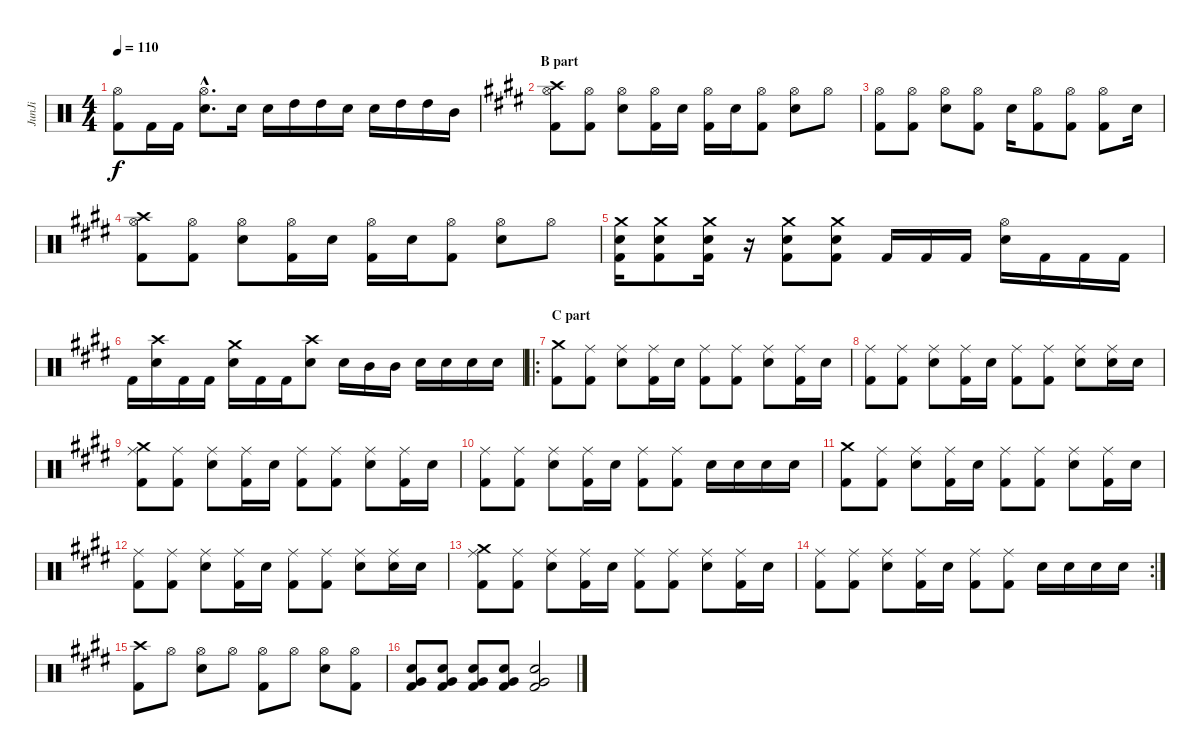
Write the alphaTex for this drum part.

\track ("JunJi" "JunJi") {instrument percussion}
\staff {score}
\articulation defaults
\ts (4 4)
\tempo 110
\clef neutral
\ks c
("Hi-Hat (open)" "Kick (hit) 2").8{dy f} "Kick (hit) 2".16 "Kick (hit) 2".16 ("Hi-Hat (open)"{hac} "Snare (hit) 2"{hac}).8{d} "Snare (hit) 2".16 "Snare (hit) 2".16 "High Tom (hit)".16 "High Tom (hit)".16 "Snare (hit) 2".16 "Snare (hit) 2".16 "High Tom (hit)".16 "High Tom (hit)".16 "Mid Tom (hit)".16 |
\section ("" "B part")
\ks c#minor
("Hi-Hat (open)" "Kick (hit) 2" "Crash high (hit)").8 ("Hi-Hat (open)" "Kick (hit) 2").8 ("Hi-Hat (open)" "Snare (hit) 2").8 ("Hi-Hat (open)" "Kick (hit) 2").16 "Snare (hit) 2".16 ("Hi-Hat (open)" "Kick (hit) 2").16 "Snare (hit) 2".16 ("Hi-Hat (open)" "Kick (hit) 2").8 ("Hi-Hat (open)" "Snare (hit) 2").8 "Hi-Hat (open)".8 |
("Hi-Hat (open)" "Kick (hit) 2").8 ("Hi-Hat (open)" "Kick (hit) 2").8 ("Hi-Hat (open)" "Snare (hit) 2").8 ("Hi-Hat (open)" "Kick (hit) 2").8 "Snare (hit) 2".16 ("Hi-Hat (open)" "Kick (hit) 2").8 ("Hi-Hat (open)" "Kick (hit) 2").8 ("Hi-Hat (open)" "Kick (hit) 2").8 "Snare (hit) 2".16 |
("Hi-Hat (open)" "Kick (hit) 2" "Crash high (hit)").8 ("Hi-Hat (open)" "Kick (hit) 2").8 ("Hi-Hat (open)" "Snare (hit) 2").8 ("Hi-Hat (open)" "Kick (hit) 2").16 "Snare (hit) 2".16 ("Hi-Hat (open)" "Kick (hit) 2").16 "Snare (hit) 2".16 ("Hi-Hat (open)" "Kick (hit) 2").8 ("Hi-Hat (open)" "Snare (hit) 2").8 "Hi-Hat (open)".8 |
("Crash medium (hit)" "Kick (hit) 2" "Snare (hit) 2").16 ("Crash medium (hit)" "Kick (hit) 2" "Snare (hit) 2").8 ("Crash medium (hit)" "Kick (hit) 2" "Snare (hit) 2").16 r.16 ("Crash medium (hit)" "Kick (hit) 2" "Snare (hit) 2").8 ("Crash medium (hit)" "Kick (hit) 2" "Snare (hit) 2").8 "Kick (hit) 2".16 "Kick (hit) 2".16 "Kick (hit) 2".16 ("Hi-Hat (open)" "Snare (hit) 2").16 "Kick (hit) 2".16 "Kick (hit) 2".16 "Kick (hit) 2".16 |
"Kick (hit) 2".16 ("Crash high (hit)" "Snare (hit) 2").16 "Kick (hit) 2".16 "Kick (hit) 2".16 ("Crash medium (hit)" "Snare (hit) 2").16 "Kick (hit) 2".16 "Kick (hit) 2".16 ("Crash high (hit)" "Snare (hit) 2").8 "Snare (hit) 2".16 "Mid Tom (hit)".16 "Mid Tom (hit)".16 "Snare (hit) 2".16 "Snare (hit) 2".16 "Snare (hit) 2".16 "Snare (hit) 2".16 |
\ro
\section ("" "C part")
("Crash medium (hit)" "Kick (hit) 2").8 ("Ride (middle)" "Kick (hit) 2").8 ("Ride (middle)" "Snare (hit) 2").8 ("Ride (middle)" "Kick (hit) 2").16 "Snare (hit) 2".16 ("Ride (middle)" "Kick (hit) 2").8 ("Ride (middle)" "Kick (hit) 2").8 ("Ride (middle)" "Snare (hit) 2").8 ("Ride (middle)" "Kick (hit) 2").16 "Snare (hit) 2".16 |
("Ride (middle)" "Kick (hit) 2").8 ("Ride (middle)" "Kick (hit) 2").8 ("Ride (middle)" "Snare (hit) 2").8 ("Ride (middle)" "Kick (hit) 2").16 "Snare (hit) 2".16 ("Ride (middle)" "Kick (hit) 2").8 ("Ride (middle)" "Kick (hit) 2").8 ("Ride (middle)" "Snare (hit) 2").8 ("Ride (middle)" "Snare (hit) 2").16 "Snare (hit) 2".16 |
("Ride (middle)" "Kick (hit) 2" "Crash medium (hit)").8 ("Ride (middle)" "Kick (hit) 2").8 ("Ride (middle)" "Snare (hit) 2").8 ("Ride (middle)" "Kick (hit) 2").16 "Snare (hit) 2".16 ("Ride (middle)" "Kick (hit) 2").8 ("Ride (middle)" "Kick (hit) 2").8 ("Ride (middle)" "Snare (hit) 2").8 ("Ride (middle)" "Kick (hit) 2").16 "Snare (hit) 2".16 |
("Ride (middle)" "Kick (hit) 2").8 ("Ride (middle)" "Kick (hit) 2").8 ("Ride (middle)" "Snare (hit) 2").8 ("Ride (middle)" "Kick (hit) 2").16 "Snare (hit) 2".16 ("Ride (middle)" "Kick (hit) 2").8 ("Ride (middle)" "Kick (hit) 2").8 "Snare (hit) 2".16 "Snare (hit) 2".16 "Snare (hit) 2".16 "Snare (hit) 2".16 |
("Crash medium (hit)" "Kick (hit) 2").8 ("Ride (middle)" "Kick (hit) 2").8 ("Ride (middle)" "Snare (hit) 2").8 ("Ride (middle)" "Kick (hit) 2").16 "Snare (hit) 2".16 ("Ride (middle)" "Kick (hit) 2").8 ("Ride (middle)" "Kick (hit) 2").8 ("Ride (middle)" "Snare (hit) 2").8 ("Ride (middle)" "Kick (hit) 2").16 "Snare (hit) 2".16 |
("Ride (middle)" "Kick (hit) 2").8 ("Ride (middle)" "Kick (hit) 2").8 ("Ride (middle)" "Snare (hit) 2").8 ("Ride (middle)" "Kick (hit) 2").16 "Snare (hit) 2".16 ("Ride (middle)" "Kick (hit) 2").8 ("Ride (middle)" "Kick (hit) 2").8 ("Ride (middle)" "Snare (hit) 2").8 ("Ride (middle)" "Snare (hit) 2").16 "Snare (hit) 2".16 |
("Ride (middle)" "Kick (hit) 2" "Crash medium (hit)").8 ("Ride (middle)" "Kick (hit) 2").8 ("Ride (middle)" "Snare (hit) 2").8 ("Ride (middle)" "Kick (hit) 2").16 "Snare (hit) 2".16 ("Ride (middle)" "Kick (hit) 2").8 ("Ride (middle)" "Kick (hit) 2").8 ("Ride (middle)" "Snare (hit) 2").8 ("Ride (middle)" "Kick (hit) 2").16 "Snare (hit) 2".16 |
\rc 2
("Ride (middle)" "Kick (hit) 2").8 ("Ride (middle)" "Kick (hit) 2").8 ("Ride (middle)" "Snare (hit) 2").8 ("Ride (middle)" "Kick (hit) 2").16 "Snare (hit) 2".16 ("Ride (middle)" "Kick (hit) 2").8 ("Ride (middle)" "Kick (hit) 2").8 "Snare (hit) 2".16 "Snare (hit) 2".16 "Snare (hit) 2".16 "Snare (hit) 2".16 |
("Crash high (hit)" "Kick (hit) 2").8 "Hi-Hat (open)".8 ("Hi-Hat (open)" "Snare (hit) 2").8 "Hi-Hat (open)".8 ("Hi-Hat (open)" "Kick (hit) 2").8 "Hi-Hat (open)".8 ("Hi-Hat (open)" "Snare (hit) 2").8 ("Hi-Hat (open)" "Kick (hit) 2").8 |
("Snare (hit) 2" "Kick (hit) 2" "Very Low Tom (hit)").8 ("Snare (hit) 2" "Kick (hit) 2" "Very Low Tom (hit)").8 ("Snare (hit) 2" "Kick (hit) 2" "Very Low Tom (hit)").8 ("Snare (hit) 2" "Kick (hit) 2" "Very Low Tom (hit)").8 ("Snare (hit) 2" "Kick (hit) 2" "Very Low Tom (hit)").2
